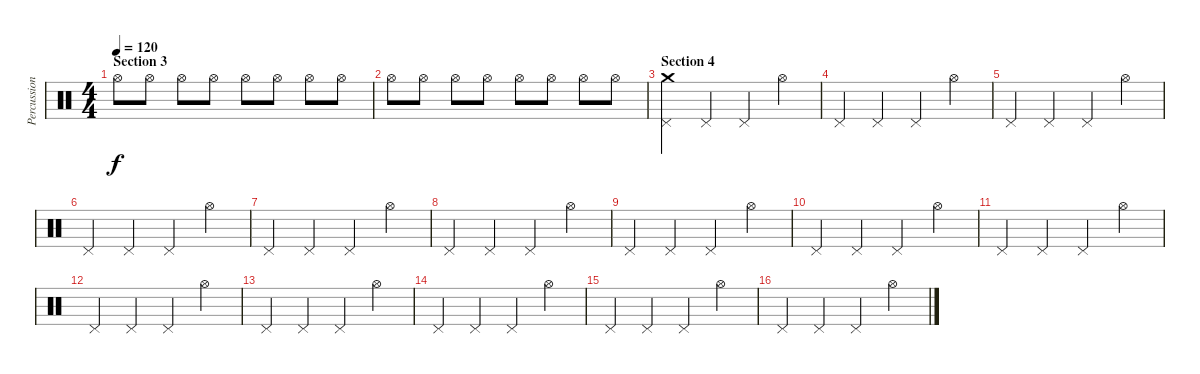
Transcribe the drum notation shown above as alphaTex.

\track ("Percussions" "Percussion") {instrument percussion}
\staff {score}
\articulation defaults
\ts (4 4)
\section ("" "Section 3")
\tempo 120
\clef neutral
\ks c "Hi-Hat (open)".8{dy f} "Hi-Hat (open)".8 "Hi-Hat (open)".8 "Hi-Hat (open)".8 "Hi-Hat (open)".8 "Hi-Hat (open)".8 "Hi-Hat (open)".8 "Hi-Hat (open)".8
|
"Hi-Hat (open)".8 "Hi-Hat (open)".8 "Hi-Hat (open)".8 "Hi-Hat (open)".8 "Hi-Hat (open)".8 "Hi-Hat (open)".8 "Hi-Hat (open)".8 "Hi-Hat (open)".8 |
\section ("" "Section 4")
("Crash medium (hit)" "Pedal Hi-Hat (hit)").4 "Pedal Hi-Hat (hit)".4 "Pedal Hi-Hat (hit)".4 "Hi-Hat (open)".4 |
"Pedal Hi-Hat (hit)".4 "Pedal Hi-Hat (hit)".4 "Pedal Hi-Hat (hit)".4 "Hi-Hat (open)".4 |
"Pedal Hi-Hat (hit)".4 "Pedal Hi-Hat (hit)".4 "Pedal Hi-Hat (hit)".4 "Hi-Hat (open)".4 |
"Pedal Hi-Hat (hit)".4 "Pedal Hi-Hat (hit)".4 "Pedal Hi-Hat (hit)".4 "Hi-Hat (open)".4 |
"Pedal Hi-Hat (hit)".4 "Pedal Hi-Hat (hit)".4 "Pedal Hi-Hat (hit)".4 "Hi-Hat (open)".4 |
"Pedal Hi-Hat (hit)".4 "Pedal Hi-Hat (hit)".4 "Pedal Hi-Hat (hit)".4 "Hi-Hat (open)".4 |
"Pedal Hi-Hat (hit)".4 "Pedal Hi-Hat (hit)".4 "Pedal Hi-Hat (hit)".4 "Hi-Hat (open)".4 |
"Pedal Hi-Hat (hit)".4 "Pedal Hi-Hat (hit)".4 "Pedal Hi-Hat (hit)".4 "Hi-Hat (open)".4 |
"Pedal Hi-Hat (hit)".4 "Pedal Hi-Hat (hit)".4 "Pedal Hi-Hat (hit)".4 "Hi-Hat (open)".4 |
"Pedal Hi-Hat (hit)".4 "Pedal Hi-Hat (hit)".4 "Pedal Hi-Hat (hit)".4 "Hi-Hat (open)".4 |
"Pedal Hi-Hat (hit)".4 "Pedal Hi-Hat (hit)".4 "Pedal Hi-Hat (hit)".4 "Hi-Hat (open)".4 |
"Pedal Hi-Hat (hit)".4 "Pedal Hi-Hat (hit)".4 "Pedal Hi-Hat (hit)".4 "Hi-Hat (open)".4 |
"Pedal Hi-Hat (hit)".4 "Pedal Hi-Hat (hit)".4 "Pedal Hi-Hat (hit)".4 "Hi-Hat (open)".4 |
"Pedal Hi-Hat (hit)".4 "Pedal Hi-Hat (hit)".4 "Pedal Hi-Hat (hit)".4 "Hi-Hat (open)".4
